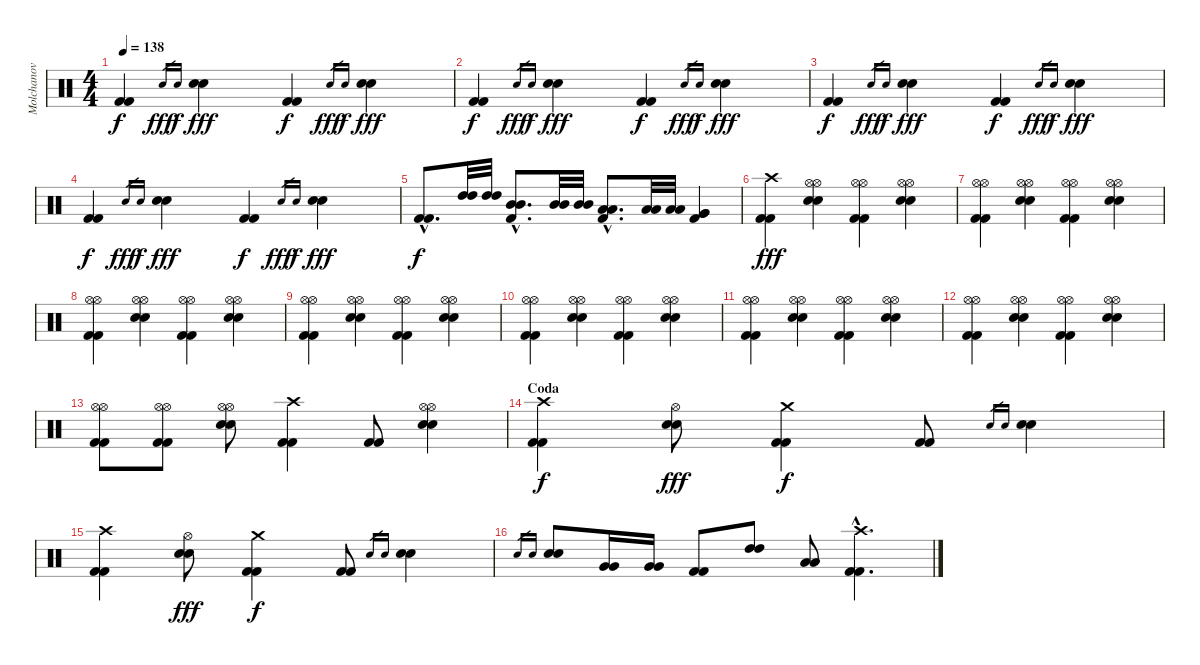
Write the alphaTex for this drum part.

\track ("Molchanov" "Molchanov") {instrument percussion}
\staff {score}
\articulation defaults
\ts (4 4)
\tempo 138
\clef neutral
\ks c
("Kick (hit) 2" "Kick (hit) 2").4{dy f} "Electric Snare (hit)".16{gr dy fff} "Electric Snare (hit)".16{gr dy f} ("Electric Snare (hit)" "Electric Snare (hit)").4{dy fff} ("Kick (hit) 2" "Kick (hit) 2").4{dy f} "Electric Snare (hit)".16{gr dy fff} "Electric Snare (hit)".16{gr dy f} ("Electric Snare (hit)" "Electric Snare (hit)").4{dy fff} |
("Kick (hit) 2" "Kick (hit) 2").4{dy f} "Electric Snare (hit)".16{gr dy fff} "Electric Snare (hit)".16{gr dy f} ("Electric Snare (hit)" "Electric Snare (hit)").4{dy fff} ("Kick (hit) 2" "Kick (hit) 2").4{dy f} "Electric Snare (hit)".16{gr dy fff} "Electric Snare (hit)".16{gr dy f} ("Electric Snare (hit)" "Electric Snare (hit)").4{dy fff} |
("Kick (hit) 2" "Kick (hit) 2").4{dy f} "Electric Snare (hit)".16{gr dy fff} "Electric Snare (hit)".16{gr dy f} ("Electric Snare (hit)" "Electric Snare (hit)").4{dy fff} ("Kick (hit) 2" "Kick (hit) 2").4{dy f} "Electric Snare (hit)".16{gr dy fff} "Electric Snare (hit)".16{gr dy f} ("Electric Snare (hit)" "Electric Snare (hit)").4{dy fff} |
("Kick (hit) 2" "Kick (hit) 2").4{dy f} "Electric Snare (hit)".16{gr dy fff} "Electric Snare (hit)".16{gr dy f} ("Electric Snare (hit)" "Electric Snare (hit)").4{dy fff} ("Kick (hit) 2" "Kick (hit) 2").4{dy f} "Electric Snare (hit)".16{gr dy fff} "Electric Snare (hit)".16{gr dy f} ("Electric Snare (hit)" "Electric Snare (hit)").4{dy fff} |
("Kick (hit) 2"{hac} "Kick (hit) 2"{hac}).8{d dy f} ("High Tom (hit)" "High Tom (hit)").32 ("High Tom (hit)" "High Tom (hit)").32 ("Mid Tom (hit)"{hac} "Mid Tom (hit)"{hac} "Kick (hit) 2"{hac}).8{d} ("Mid Tom (hit)" "Mid Tom (hit)").32 ("Mid Tom (hit)" "Mid Tom (hit)").32 ("Low Tom (hit)"{hac} "Low Tom (hit)"{hac} "Kick (hit) 2"{hac}).8{d} ("Low Tom (hit)" "Low Tom (hit)").32 ("Low Tom (hit)" "Low Tom (hit)").32 ("Very Low Tom (hit)" "Very Low Tom (hit)" "Kick (hit) 2").4 |
("Crash high (hit)" "Kick (hit) 2" "Kick (hit) 2").4{dy fff} ("Hi-Hat (open)" "Hi-Hat (open)" "Electric Snare (hit)" "Electric Snare (hit)").4 ("Hi-Hat (open)" "Hi-Hat (open)" "Kick (hit) 2" "Kick (hit) 2").4 ("Hi-Hat (open)" "Hi-Hat (open)" "Electric Snare (hit)" "Electric Snare (hit)").4 |
("Hi-Hat (open)" "Hi-Hat (open)" "Kick (hit) 2" "Kick (hit) 2").4 ("Hi-Hat (open)" "Hi-Hat (open)" "Electric Snare (hit)" "Electric Snare (hit)").4 ("Hi-Hat (open)" "Hi-Hat (open)" "Kick (hit) 2" "Kick (hit) 2").4 ("Hi-Hat (open)" "Hi-Hat (open)" "Electric Snare (hit)" "Electric Snare (hit)").4 |
("Hi-Hat (open)" "Hi-Hat (open)" "Kick (hit) 2" "Kick (hit) 2").4 ("Hi-Hat (open)" "Hi-Hat (open)" "Electric Snare (hit)" "Electric Snare (hit)").4 ("Hi-Hat (open)" "Hi-Hat (open)" "Kick (hit) 2" "Kick (hit) 2").4 ("Hi-Hat (open)" "Hi-Hat (open)" "Electric Snare (hit)" "Electric Snare (hit)").4 |
("Hi-Hat (open)" "Hi-Hat (open)" "Kick (hit) 2" "Kick (hit) 2").4 ("Hi-Hat (open)" "Hi-Hat (open)" "Electric Snare (hit)" "Electric Snare (hit)").4 ("Hi-Hat (open)" "Hi-Hat (open)" "Kick (hit) 2" "Kick (hit) 2").4 ("Hi-Hat (open)" "Hi-Hat (open)" "Electric Snare (hit)" "Electric Snare (hit)").4 |
("Hi-Hat (open)" "Hi-Hat (open)" "Kick (hit) 2" "Kick (hit) 2").4 ("Hi-Hat (open)" "Hi-Hat (open)" "Electric Snare (hit)" "Electric Snare (hit)").4 ("Hi-Hat (open)" "Hi-Hat (open)" "Kick (hit) 2" "Kick (hit) 2").4 ("Hi-Hat (open)" "Hi-Hat (open)" "Electric Snare (hit)" "Electric Snare (hit)").4 |
("Hi-Hat (open)" "Hi-Hat (open)" "Kick (hit) 2" "Kick (hit) 2").4 ("Hi-Hat (open)" "Hi-Hat (open)" "Electric Snare (hit)" "Electric Snare (hit)").4 ("Hi-Hat (open)" "Hi-Hat (open)" "Kick (hit) 2" "Kick (hit) 2").4 ("Hi-Hat (open)" "Hi-Hat (open)" "Electric Snare (hit)" "Electric Snare (hit)").4 |
("Hi-Hat (open)" "Hi-Hat (open)" "Kick (hit) 2" "Kick (hit) 2").4 ("Hi-Hat (open)" "Hi-Hat (open)" "Electric Snare (hit)" "Electric Snare (hit)").4 ("Hi-Hat (open)" "Hi-Hat (open)" "Kick (hit) 2" "Kick (hit) 2").4 ("Hi-Hat (open)" "Hi-Hat (open)" "Electric Snare (hit)" "Electric Snare (hit)").4 |
("Hi-Hat (open)" "Hi-Hat (open)" "Kick (hit) 2" "Kick (hit) 2").8 ("Hi-Hat (open)" "Hi-Hat (open)" "Kick (hit) 2" "Kick (hit) 2").8 ("Hi-Hat (open)" "Hi-Hat (open)" "Electric Snare (hit)" "Electric Snare (hit)").8 ("Crash high (hit)" "Kick (hit) 2" "Kick (hit) 2").4 ("Kick (hit) 2" "Kick (hit) 2").8 ("Hi-Hat (open)" "Hi-Hat (open)" "Electric Snare (hit)" "Electric Snare (hit)").4 |
\section ("" "Coda")
("Crash high (hit)" "Kick (hit) 2" "Kick (hit) 2").4{dy f} ("Hi-Hat (open)" "Electric Snare (hit)" "Electric Snare (hit)").8{dy fff} ("Crash medium (hit)" "Kick (hit) 2" "Kick (hit) 2").4{dy f} ("Kick (hit) 2" "Kick (hit) 2").8 "Electric Snare (hit)".16{gr} "Electric Snare (hit)".16{gr} ("Electric Snare (hit)" "Electric Snare (hit)").4 |
("Crash high (hit)" "Kick (hit) 2" "Kick (hit) 2").4 ("Hi-Hat (open)" "Electric Snare (hit)" "Electric Snare (hit)").8{dy fff} ("Crash medium (hit)" "Kick (hit) 2" "Kick (hit) 2").4{dy f} ("Kick (hit) 2" "Kick (hit) 2").8 "Electric Snare (hit)".16{gr} "Electric Snare (hit)".16{gr} ("Electric Snare (hit)" "Electric Snare (hit)").4 |
"Electric Snare (hit)".16{gr} "Electric Snare (hit)".16{gr} ("Electric Snare (hit)" "Electric Snare (hit)").8 ("Very Low Tom (hit)" "Very Low Tom (hit)").16 ("Very Low Tom (hit)" "Very Low Tom (hit)").16 ("Kick (hit) 2" "Kick (hit) 2").8 ("High Tom (hit)" "High Tom (hit)").8 ("Low Tom (hit)" "Low Tom (hit)").8 ("Crash high (hit)"{hac} "Kick (hit) 2"{hac} "Kick (hit) 2"{hac}).4{d}
